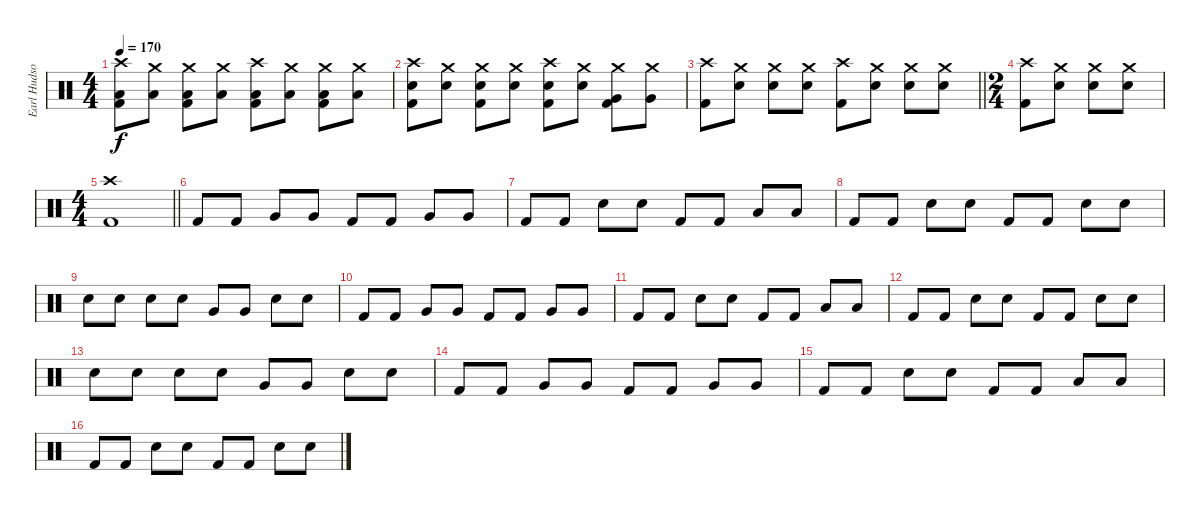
\track ("Earl Hudson" "Earl Hudso") {instrument percussion}
\staff {score}
\articulation defaults
\ts (4 4)
\tempo 170
\clef neutral
\ks c
("Crash high (hit)" "Low Tom (hit)" "Kick (hit) 2").8{dy f} ("Crash medium (hit)" "Low Tom (hit)").8 ("Crash medium (hit)" "Low Tom (hit)" "Kick (hit) 2").8 ("Crash medium (hit)" "Low Tom (hit)").8 ("Crash high (hit)" "Low Tom (hit)" "Kick (hit) 2").8 ("Crash medium (hit)" "Low Tom (hit)").8 ("Crash medium (hit)" "Low Tom (hit)" "Kick (hit) 2").8 ("Crash medium (hit)" "Low Tom (hit)").8 |
("Crash high (hit)" "Snare (hit) 2" "Kick (hit) 2").8 ("Crash medium (hit)" "Snare (hit) 2").8 ("Crash medium (hit)" "Snare (hit) 2" "Kick (hit) 2").8 ("Crash medium (hit)" "Snare (hit) 2").8 ("Crash high (hit)" "Electric Snare (hit)" "Kick (hit) 2").8 ("Crash medium (hit)" "Electric Snare (hit)").8 ("Crash medium (hit)" "Very Low Tom (hit)" "Kick (hit) 2").8 ("Crash medium (hit)" "Very Low Tom (hit)").8 |
\barLineRight lightlight
("Crash high (hit)" "Kick (hit) 2").8 ("Crash medium (hit)" "Electric Snare (hit)").8 ("Crash medium (hit)" "Electric Snare (hit)").8 ("Crash medium (hit)" "Electric Snare (hit)").8 ("Crash high (hit)" "Kick (hit) 2").8 ("Crash medium (hit)" "Electric Snare (hit)").8 ("Crash medium (hit)" "Electric Snare (hit)").8 ("Crash medium (hit)" "Electric Snare (hit)").8 |
\ts (2 4)
("Crash high (hit)" "Kick (hit) 2").8 ("Crash medium (hit)" "Electric Snare (hit)").8 ("Crash medium (hit)" "Electric Snare (hit)").8 ("Crash medium (hit)" "Electric Snare (hit)").8 |
\ts (4 4)
\barLineRight lightlight
("Crash high (hit)" "Kick (hit) 2").1 |
"Kick (hit) 2".8 "Kick (hit) 2".8 "Very Low Tom (hit)".8 "Very Low Tom (hit)".8 "Kick (hit) 2".8 "Kick (hit) 2".8 "Very Low Tom (hit)".8 "Very Low Tom (hit)".8 |
"Kick (hit) 2".8 "Kick (hit) 2".8 "Electric Snare (hit)".8 "Electric Snare (hit)".8 "Kick (hit) 2".8 "Kick (hit) 2".8 "Low Tom (hit)".8 "Low Tom (hit)".8 |
"Kick (hit) 2".8 "Kick (hit) 2".8 "Snare (hit) 2".8 "Snare (hit) 2".8 "Kick (hit) 2".8 "Kick (hit) 2".8 "Snare (hit) 2".8 "Snare (hit) 2".8 |
"Snare (hit) 2".8 "Snare (hit) 2".8 "Electric Snare (hit)".8 "Electric Snare (hit)".8 "Very Low Tom (hit)".8 "Very Low Tom (hit)".8 "Electric Snare (hit)".8 "Electric Snare (hit)".8 |
"Kick (hit) 2".8 "Kick (hit) 2".8 "Very Low Tom (hit)".8 "Very Low Tom (hit)".8 "Kick (hit) 2".8 "Kick (hit) 2".8 "Very Low Tom (hit)".8 "Very Low Tom (hit)".8 |
"Kick (hit) 2".8 "Kick (hit) 2".8 "Electric Snare (hit)".8 "Electric Snare (hit)".8 "Kick (hit) 2".8 "Kick (hit) 2".8 "Low Tom (hit)".8 "Low Tom (hit)".8 |
"Kick (hit) 2".8 "Kick (hit) 2".8 "Snare (hit) 2".8 "Snare (hit) 2".8 "Kick (hit) 2".8 "Kick (hit) 2".8 "Snare (hit) 2".8 "Snare (hit) 2".8 |
"Snare (hit) 2".8 "Snare (hit) 2".8 "Electric Snare (hit)".8 "Electric Snare (hit)".8 "Very Low Tom (hit)".8 "Very Low Tom (hit)".8 "Electric Snare (hit)".8 "Electric Snare (hit)".8 |
"Kick (hit) 2".8 "Kick (hit) 2".8 "Very Low Tom (hit)".8 "Very Low Tom (hit)".8 "Kick (hit) 2".8 "Kick (hit) 2".8 "Very Low Tom (hit)".8 "Very Low Tom (hit)".8 |
"Kick (hit) 2".8 "Kick (hit) 2".8 "Electric Snare (hit)".8 "Electric Snare (hit)".8 "Kick (hit) 2".8 "Kick (hit) 2".8 "Low Tom (hit)".8 "Low Tom (hit)".8 |
"Kick (hit) 2".8 "Kick (hit) 2".8 "Snare (hit) 2".8 "Snare (hit) 2".8 "Kick (hit) 2".8 "Kick (hit) 2".8 "Snare (hit) 2".8 "Snare (hit) 2".8
